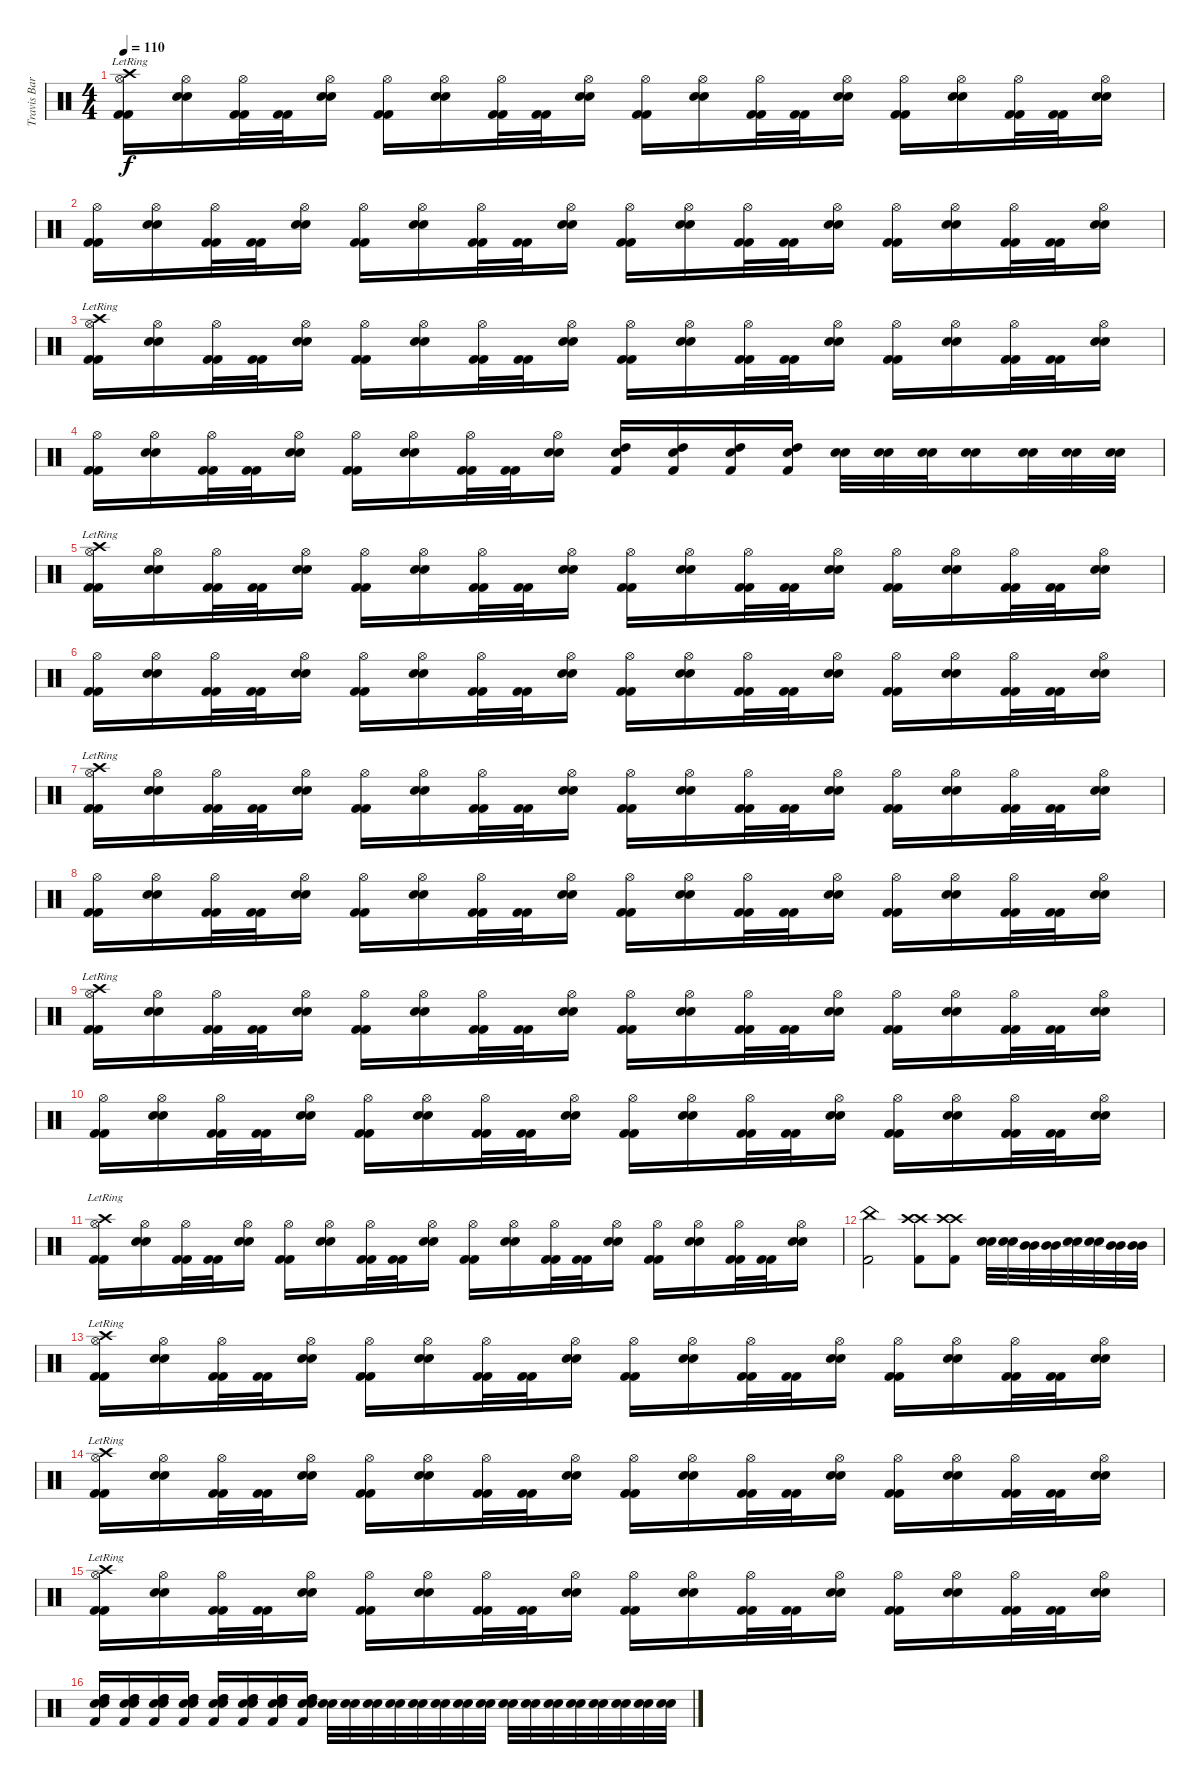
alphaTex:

\track ("Travis Barker - Drums" "Travis Bar") {instrument percussion}
\staff {score}
\articulation defaults
\ts (4 4)
\tempo 110
\clef neutral
\ks c
("Kick (hit) 2" "Kick (hit) 2" "Hi-Hat (open)" "Crash high (hit)"{lr}).16{dy f} ("Snare (hit) 2" "Snare (hit) 2" "Hi-Hat (open)").16 ("Kick (hit) 2" "Kick (hit) 2" "Hi-Hat (open)").32 ("Kick (hit) 2" "Kick (hit) 2").32 ("Snare (hit) 2" "Snare (hit) 2" "Hi-Hat (open)").16 ("Kick (hit) 2" "Kick (hit) 2" "Hi-Hat (open)").16 ("Snare (hit) 2" "Snare (hit) 2" "Hi-Hat (open)").16 ("Kick (hit) 2" "Kick (hit) 2" "Hi-Hat (open)").32 ("Kick (hit) 2" "Kick (hit) 2").32 ("Snare (hit) 2" "Snare (hit) 2" "Hi-Hat (open)").16 ("Kick (hit) 2" "Kick (hit) 2" "Hi-Hat (open)").16 ("Snare (hit) 2" "Snare (hit) 2" "Hi-Hat (open)").16 ("Kick (hit) 2" "Kick (hit) 2" "Hi-Hat (open)").32 ("Kick (hit) 2" "Kick (hit) 2").32 ("Snare (hit) 2" "Snare (hit) 2" "Hi-Hat (open)").16 ("Kick (hit) 2" "Kick (hit) 2" "Hi-Hat (open)").16 ("Snare (hit) 2" "Snare (hit) 2" "Hi-Hat (open)").16 ("Kick (hit) 2" "Kick (hit) 2" "Hi-Hat (open)").32 ("Kick (hit) 2" "Kick (hit) 2").32 ("Snare (hit) 2" "Snare (hit) 2" "Hi-Hat (open)").16 |
("Kick (hit) 2" "Kick (hit) 2" "Hi-Hat (open)").16 ("Snare (hit) 2" "Snare (hit) 2" "Hi-Hat (open)").16 ("Kick (hit) 2" "Kick (hit) 2" "Hi-Hat (open)").32 ("Kick (hit) 2" "Kick (hit) 2").32 ("Snare (hit) 2" "Snare (hit) 2" "Hi-Hat (open)").16 ("Kick (hit) 2" "Kick (hit) 2" "Hi-Hat (open)").16 ("Snare (hit) 2" "Snare (hit) 2" "Hi-Hat (open)").16 ("Kick (hit) 2" "Kick (hit) 2" "Hi-Hat (open)").32 ("Kick (hit) 2" "Kick (hit) 2").32 ("Snare (hit) 2" "Snare (hit) 2" "Hi-Hat (open)").16 ("Kick (hit) 2" "Kick (hit) 2" "Hi-Hat (open)").16 ("Snare (hit) 2" "Snare (hit) 2" "Hi-Hat (open)").16 ("Kick (hit) 2" "Kick (hit) 2" "Hi-Hat (open)").32 ("Kick (hit) 2" "Kick (hit) 2").32 ("Snare (hit) 2" "Snare (hit) 2" "Hi-Hat (open)").16 ("Kick (hit) 2" "Kick (hit) 2" "Hi-Hat (open)").16 ("Snare (hit) 2" "Snare (hit) 2" "Hi-Hat (open)").16 ("Kick (hit) 2" "Kick (hit) 2" "Hi-Hat (open)").32 ("Kick (hit) 2" "Kick (hit) 2").32 ("Snare (hit) 2" "Snare (hit) 2" "Hi-Hat (open)").16 |
("Kick (hit) 2" "Kick (hit) 2" "Hi-Hat (open)" "Crash high (hit)"{lr}).16 ("Snare (hit) 2" "Snare (hit) 2" "Hi-Hat (open)").16 ("Kick (hit) 2" "Kick (hit) 2" "Hi-Hat (open)").32 ("Kick (hit) 2" "Kick (hit) 2").32 ("Snare (hit) 2" "Snare (hit) 2" "Hi-Hat (open)").16 ("Kick (hit) 2" "Kick (hit) 2" "Hi-Hat (open)").16 ("Snare (hit) 2" "Snare (hit) 2" "Hi-Hat (open)").16 ("Kick (hit) 2" "Kick (hit) 2" "Hi-Hat (open)").32 ("Kick (hit) 2" "Kick (hit) 2").32 ("Snare (hit) 2" "Snare (hit) 2" "Hi-Hat (open)").16 ("Kick (hit) 2" "Kick (hit) 2" "Hi-Hat (open)").16 ("Snare (hit) 2" "Snare (hit) 2" "Hi-Hat (open)").16 ("Kick (hit) 2" "Kick (hit) 2" "Hi-Hat (open)").32 ("Kick (hit) 2" "Kick (hit) 2").32 ("Snare (hit) 2" "Snare (hit) 2" "Hi-Hat (open)").16 ("Kick (hit) 2" "Kick (hit) 2" "Hi-Hat (open)").16 ("Snare (hit) 2" "Snare (hit) 2" "Hi-Hat (open)").16 ("Kick (hit) 2" "Kick (hit) 2" "Hi-Hat (open)").32 ("Kick (hit) 2" "Kick (hit) 2").32 ("Snare (hit) 2" "Snare (hit) 2" "Hi-Hat (open)").16 |
("Kick (hit) 2" "Kick (hit) 2" "Hi-Hat (open)").16 ("Snare (hit) 2" "Snare (hit) 2" "Hi-Hat (open)").16 ("Kick (hit) 2" "Kick (hit) 2" "Hi-Hat (open)").32 ("Kick (hit) 2" "Kick (hit) 2").32 ("Snare (hit) 2" "Snare (hit) 2" "Hi-Hat (open)").16 ("Kick (hit) 2" "Kick (hit) 2" "Hi-Hat (open)").16 ("Snare (hit) 2" "Snare (hit) 2" "Hi-Hat (open)").16 ("Kick (hit) 2" "Kick (hit) 2" "Hi-Hat (open)").32 ("Kick (hit) 2" "Kick (hit) 2").32 ("Snare (hit) 2" "Snare (hit) 2" "Hi-Hat (open)").16 ("Snare (hit) 2" "High Tom (hit)" "Kick (hit) 2").16 ("Snare (hit) 2" "High Tom (hit)" "Kick (hit) 2").16 ("Snare (hit) 2" "High Tom (hit)" "Kick (hit) 2").16 ("Snare (hit) 2" "High Tom (hit)" "Kick (hit) 2").16 ("Snare (hit) 2" "Snare (hit) 2").32 ("Snare (hit) 2" "Snare (hit) 2").32 ("Snare (hit) 2" "Snare (hit) 2").32 ("Snare (hit) 2" "Snare (hit) 2").16 ("Snare (hit) 2" "Snare (hit) 2").32 ("Snare (hit) 2" "Snare (hit) 2").32 ("Snare (hit) 2" "Snare (hit) 2").32 |
("Kick (hit) 2" "Kick (hit) 2" "Hi-Hat (open)" "Crash high (hit)"{lr}).16 ("Snare (hit) 2" "Snare (hit) 2" "Hi-Hat (open)").16 ("Kick (hit) 2" "Kick (hit) 2" "Hi-Hat (open)").32 ("Kick (hit) 2" "Kick (hit) 2").32 ("Snare (hit) 2" "Snare (hit) 2" "Hi-Hat (open)").16 ("Kick (hit) 2" "Kick (hit) 2" "Hi-Hat (open)").16 ("Snare (hit) 2" "Snare (hit) 2" "Hi-Hat (open)").16 ("Kick (hit) 2" "Kick (hit) 2" "Hi-Hat (open)").32 ("Kick (hit) 2" "Kick (hit) 2").32 ("Snare (hit) 2" "Snare (hit) 2" "Hi-Hat (open)").16 ("Kick (hit) 2" "Kick (hit) 2" "Hi-Hat (open)").16 ("Snare (hit) 2" "Snare (hit) 2" "Hi-Hat (open)").16 ("Kick (hit) 2" "Kick (hit) 2" "Hi-Hat (open)").32 ("Kick (hit) 2" "Kick (hit) 2").32 ("Snare (hit) 2" "Snare (hit) 2" "Hi-Hat (open)").16 ("Kick (hit) 2" "Kick (hit) 2" "Hi-Hat (open)").16 ("Snare (hit) 2" "Snare (hit) 2" "Hi-Hat (open)").16 ("Kick (hit) 2" "Kick (hit) 2" "Hi-Hat (open)").32 ("Kick (hit) 2" "Kick (hit) 2").32 ("Snare (hit) 2" "Snare (hit) 2" "Hi-Hat (open)").16 |
("Kick (hit) 2" "Kick (hit) 2" "Hi-Hat (open)").16 ("Snare (hit) 2" "Snare (hit) 2" "Hi-Hat (open)").16 ("Kick (hit) 2" "Kick (hit) 2" "Hi-Hat (open)").32 ("Kick (hit) 2" "Kick (hit) 2").32 ("Snare (hit) 2" "Snare (hit) 2" "Hi-Hat (open)").16 ("Kick (hit) 2" "Kick (hit) 2" "Hi-Hat (open)").16 ("Snare (hit) 2" "Snare (hit) 2" "Hi-Hat (open)").16 ("Kick (hit) 2" "Kick (hit) 2" "Hi-Hat (open)").32 ("Kick (hit) 2" "Kick (hit) 2").32 ("Snare (hit) 2" "Snare (hit) 2" "Hi-Hat (open)").16 ("Kick (hit) 2" "Kick (hit) 2" "Hi-Hat (open)").16 ("Snare (hit) 2" "Snare (hit) 2" "Hi-Hat (open)").16 ("Kick (hit) 2" "Kick (hit) 2" "Hi-Hat (open)").32 ("Kick (hit) 2" "Kick (hit) 2").32 ("Snare (hit) 2" "Snare (hit) 2" "Hi-Hat (open)").16 ("Kick (hit) 2" "Kick (hit) 2" "Hi-Hat (open)").16 ("Snare (hit) 2" "Snare (hit) 2" "Hi-Hat (open)").16 ("Kick (hit) 2" "Kick (hit) 2" "Hi-Hat (open)").32 ("Kick (hit) 2" "Kick (hit) 2").32 ("Snare (hit) 2" "Snare (hit) 2" "Hi-Hat (open)").16 |
("Kick (hit) 2" "Kick (hit) 2" "Hi-Hat (open)" "Crash high (hit)"{lr}).16 ("Snare (hit) 2" "Snare (hit) 2" "Hi-Hat (open)").16 ("Kick (hit) 2" "Kick (hit) 2" "Hi-Hat (open)").32 ("Kick (hit) 2" "Kick (hit) 2").32 ("Snare (hit) 2" "Snare (hit) 2" "Hi-Hat (open)").16 ("Kick (hit) 2" "Kick (hit) 2" "Hi-Hat (open)").16 ("Snare (hit) 2" "Snare (hit) 2" "Hi-Hat (open)").16 ("Kick (hit) 2" "Kick (hit) 2" "Hi-Hat (open)").32 ("Kick (hit) 2" "Kick (hit) 2").32 ("Snare (hit) 2" "Snare (hit) 2" "Hi-Hat (open)").16 ("Kick (hit) 2" "Kick (hit) 2" "Hi-Hat (open)").16 ("Snare (hit) 2" "Snare (hit) 2" "Hi-Hat (open)").16 ("Kick (hit) 2" "Kick (hit) 2" "Hi-Hat (open)").32 ("Kick (hit) 2" "Kick (hit) 2").32 ("Snare (hit) 2" "Snare (hit) 2" "Hi-Hat (open)").16 ("Kick (hit) 2" "Kick (hit) 2" "Hi-Hat (open)").16 ("Snare (hit) 2" "Snare (hit) 2" "Hi-Hat (open)").16 ("Kick (hit) 2" "Kick (hit) 2" "Hi-Hat (open)").32 ("Kick (hit) 2" "Kick (hit) 2").32 ("Snare (hit) 2" "Snare (hit) 2" "Hi-Hat (open)").16 |
("Kick (hit) 2" "Kick (hit) 2" "Hi-Hat (open)").16 ("Snare (hit) 2" "Snare (hit) 2" "Hi-Hat (open)").16 ("Kick (hit) 2" "Kick (hit) 2" "Hi-Hat (open)").32 ("Kick (hit) 2" "Kick (hit) 2").32 ("Snare (hit) 2" "Snare (hit) 2" "Hi-Hat (open)").16 ("Kick (hit) 2" "Kick (hit) 2" "Hi-Hat (open)").16 ("Snare (hit) 2" "Snare (hit) 2" "Hi-Hat (open)").16 ("Kick (hit) 2" "Kick (hit) 2" "Hi-Hat (open)").32 ("Kick (hit) 2" "Kick (hit) 2").32 ("Snare (hit) 2" "Snare (hit) 2" "Hi-Hat (open)").16 ("Kick (hit) 2" "Kick (hit) 2" "Hi-Hat (open)").16 ("Snare (hit) 2" "Snare (hit) 2" "Hi-Hat (open)").16 ("Kick (hit) 2" "Kick (hit) 2" "Hi-Hat (open)").32 ("Kick (hit) 2" "Kick (hit) 2").32 ("Snare (hit) 2" "Snare (hit) 2" "Hi-Hat (open)").16 ("Kick (hit) 2" "Kick (hit) 2" "Hi-Hat (open)").16 ("Snare (hit) 2" "Snare (hit) 2" "Hi-Hat (open)").16 ("Kick (hit) 2" "Kick (hit) 2" "Hi-Hat (open)").32 ("Kick (hit) 2" "Kick (hit) 2").32 ("Snare (hit) 2" "Snare (hit) 2" "Hi-Hat (open)").16 |
("Kick (hit) 2" "Kick (hit) 2" "Hi-Hat (open)" "Crash high (hit)"{lr}).16 ("Snare (hit) 2" "Snare (hit) 2" "Hi-Hat (open)").16 ("Kick (hit) 2" "Kick (hit) 2" "Hi-Hat (open)").32 ("Kick (hit) 2" "Kick (hit) 2").32 ("Snare (hit) 2" "Snare (hit) 2" "Hi-Hat (open)").16 ("Kick (hit) 2" "Kick (hit) 2" "Hi-Hat (open)").16 ("Snare (hit) 2" "Snare (hit) 2" "Hi-Hat (open)").16 ("Kick (hit) 2" "Kick (hit) 2" "Hi-Hat (open)").32 ("Kick (hit) 2" "Kick (hit) 2").32 ("Snare (hit) 2" "Snare (hit) 2" "Hi-Hat (open)").16 ("Kick (hit) 2" "Kick (hit) 2" "Hi-Hat (open)").16 ("Snare (hit) 2" "Snare (hit) 2" "Hi-Hat (open)").16 ("Kick (hit) 2" "Kick (hit) 2" "Hi-Hat (open)").32 ("Kick (hit) 2" "Kick (hit) 2").32 ("Snare (hit) 2" "Snare (hit) 2" "Hi-Hat (open)").16 ("Kick (hit) 2" "Kick (hit) 2" "Hi-Hat (open)").16 ("Snare (hit) 2" "Snare (hit) 2" "Hi-Hat (open)").16 ("Kick (hit) 2" "Kick (hit) 2" "Hi-Hat (open)").32 ("Kick (hit) 2" "Kick (hit) 2").32 ("Snare (hit) 2" "Snare (hit) 2" "Hi-Hat (open)").16 |
("Kick (hit) 2" "Kick (hit) 2" "Hi-Hat (open)").16 ("Snare (hit) 2" "Snare (hit) 2" "Hi-Hat (open)").16 ("Kick (hit) 2" "Kick (hit) 2" "Hi-Hat (open)").32 ("Kick (hit) 2" "Kick (hit) 2").32 ("Snare (hit) 2" "Snare (hit) 2" "Hi-Hat (open)").16 ("Kick (hit) 2" "Kick (hit) 2" "Hi-Hat (open)").16 ("Snare (hit) 2" "Snare (hit) 2" "Hi-Hat (open)").16 ("Kick (hit) 2" "Kick (hit) 2" "Hi-Hat (open)").32 ("Kick (hit) 2" "Kick (hit) 2").32 ("Snare (hit) 2" "Snare (hit) 2" "Hi-Hat (open)").16 ("Kick (hit) 2" "Kick (hit) 2" "Hi-Hat (open)").16 ("Snare (hit) 2" "Snare (hit) 2" "Hi-Hat (open)").16 ("Kick (hit) 2" "Kick (hit) 2" "Hi-Hat (open)").32 ("Kick (hit) 2" "Kick (hit) 2").32 ("Snare (hit) 2" "Snare (hit) 2" "Hi-Hat (open)").16 ("Kick (hit) 2" "Kick (hit) 2" "Hi-Hat (open)").16 ("Snare (hit) 2" "Snare (hit) 2" "Hi-Hat (open)").16 ("Kick (hit) 2" "Kick (hit) 2" "Hi-Hat (open)").32 ("Kick (hit) 2" "Kick (hit) 2").32 ("Snare (hit) 2" "Snare (hit) 2" "Hi-Hat (open)").16 |
("Kick (hit) 2" "Kick (hit) 2" "Hi-Hat (open)" "Crash high (hit)"{lr}).16 ("Snare (hit) 2" "Snare (hit) 2" "Hi-Hat (open)").16 ("Kick (hit) 2" "Kick (hit) 2" "Hi-Hat (open)").32 ("Kick (hit) 2" "Kick (hit) 2").32 ("Snare (hit) 2" "Snare (hit) 2" "Hi-Hat (open)").16 ("Kick (hit) 2" "Kick (hit) 2" "Hi-Hat (open)").16 ("Snare (hit) 2" "Snare (hit) 2" "Hi-Hat (open)").16 ("Kick (hit) 2" "Kick (hit) 2" "Hi-Hat (open)").32 ("Kick (hit) 2" "Kick (hit) 2").32 ("Snare (hit) 2" "Snare (hit) 2" "Hi-Hat (open)").16 ("Kick (hit) 2" "Kick (hit) 2" "Hi-Hat (open)").16 ("Snare (hit) 2" "Snare (hit) 2" "Hi-Hat (open)").16 ("Kick (hit) 2" "Kick (hit) 2" "Hi-Hat (open)").32 ("Kick (hit) 2" "Kick (hit) 2").32 ("Snare (hit) 2" "Snare (hit) 2" "Hi-Hat (open)").16 ("Kick (hit) 2" "Kick (hit) 2" "Hi-Hat (open)").16 ("Snare (hit) 2" "Snare (hit) 2" "Hi-Hat (open)").16 ("Kick (hit) 2" "Kick (hit) 2" "Hi-Hat (open)").32 ("Kick (hit) 2" "Kick (hit) 2").32 ("Snare (hit) 2" "Snare (hit) 2" "Hi-Hat (open)").16 |
("China (hit)" "Kick (hit) 2").2 ("Crash high (hit)" "Crash high (hit)" "Kick (hit) 2").8 ("Crash high (hit)" "Crash high (hit)" "Kick (hit) 2").8 ("Snare (hit) 2" "Snare (hit) 2").32 ("Snare (hit) 2" "Snare (hit) 2").32 ("Mid Tom (hit)" "Mid Tom (hit)").32 ("Mid Tom (hit)" "Mid Tom (hit)").32 ("Snare (hit) 2" "Snare (hit) 2").32 ("Snare (hit) 2" "Snare (hit) 2").32 ("Mid Tom (hit)" "Mid Tom (hit)").32 ("Mid Tom (hit)" "Mid Tom (hit)").32 |
("Kick (hit) 2" "Kick (hit) 2" "Hi-Hat (open)" "Crash high (hit)"{lr}).16 ("Snare (hit) 2" "Snare (hit) 2" "Hi-Hat (open)").16 ("Kick (hit) 2" "Kick (hit) 2" "Hi-Hat (open)").32 ("Kick (hit) 2" "Kick (hit) 2").32 ("Snare (hit) 2" "Snare (hit) 2" "Hi-Hat (open)").16 ("Kick (hit) 2" "Kick (hit) 2" "Hi-Hat (open)").16 ("Snare (hit) 2" "Snare (hit) 2" "Hi-Hat (open)").16 ("Kick (hit) 2" "Kick (hit) 2" "Hi-Hat (open)").32 ("Kick (hit) 2" "Kick (hit) 2").32 ("Snare (hit) 2" "Snare (hit) 2" "Hi-Hat (open)").16 ("Kick (hit) 2" "Kick (hit) 2" "Hi-Hat (open)").16 ("Snare (hit) 2" "Snare (hit) 2" "Hi-Hat (open)").16 ("Kick (hit) 2" "Kick (hit) 2" "Hi-Hat (open)").32 ("Kick (hit) 2" "Kick (hit) 2").32 ("Snare (hit) 2" "Snare (hit) 2" "Hi-Hat (open)").16 ("Kick (hit) 2" "Kick (hit) 2" "Hi-Hat (open)").16 ("Snare (hit) 2" "Snare (hit) 2" "Hi-Hat (open)").16 ("Kick (hit) 2" "Kick (hit) 2" "Hi-Hat (open)").32 ("Kick (hit) 2" "Kick (hit) 2").32 ("Snare (hit) 2" "Snare (hit) 2" "Hi-Hat (open)").16 |
("Kick (hit) 2" "Kick (hit) 2" "Hi-Hat (open)" "Crash high (hit)"{lr}).16 ("Snare (hit) 2" "Snare (hit) 2" "Hi-Hat (open)").16 ("Kick (hit) 2" "Kick (hit) 2" "Hi-Hat (open)").32 ("Kick (hit) 2" "Kick (hit) 2").32 ("Snare (hit) 2" "Snare (hit) 2" "Hi-Hat (open)").16 ("Kick (hit) 2" "Kick (hit) 2" "Hi-Hat (open)").16 ("Snare (hit) 2" "Snare (hit) 2" "Hi-Hat (open)").16 ("Kick (hit) 2" "Kick (hit) 2" "Hi-Hat (open)").32 ("Kick (hit) 2" "Kick (hit) 2").32 ("Snare (hit) 2" "Snare (hit) 2" "Hi-Hat (open)").16 ("Kick (hit) 2" "Kick (hit) 2" "Hi-Hat (open)").16 ("Snare (hit) 2" "Snare (hit) 2" "Hi-Hat (open)").16 ("Kick (hit) 2" "Kick (hit) 2" "Hi-Hat (open)").32 ("Kick (hit) 2" "Kick (hit) 2").32 ("Snare (hit) 2" "Snare (hit) 2" "Hi-Hat (open)").16 ("Kick (hit) 2" "Kick (hit) 2" "Hi-Hat (open)").16 ("Snare (hit) 2" "Snare (hit) 2" "Hi-Hat (open)").16 ("Kick (hit) 2" "Kick (hit) 2" "Hi-Hat (open)").32 ("Kick (hit) 2" "Kick (hit) 2").32 ("Snare (hit) 2" "Snare (hit) 2" "Hi-Hat (open)").16 |
("Kick (hit) 2" "Kick (hit) 2" "Hi-Hat (open)" "Crash high (hit)"{lr}).16 ("Snare (hit) 2" "Snare (hit) 2" "Hi-Hat (open)").16 ("Kick (hit) 2" "Kick (hit) 2" "Hi-Hat (open)").32 ("Kick (hit) 2" "Kick (hit) 2").32 ("Snare (hit) 2" "Snare (hit) 2" "Hi-Hat (open)").16 ("Kick (hit) 2" "Kick (hit) 2" "Hi-Hat (open)").16 ("Snare (hit) 2" "Snare (hit) 2" "Hi-Hat (open)").16 ("Kick (hit) 2" "Kick (hit) 2" "Hi-Hat (open)").32 ("Kick (hit) 2" "Kick (hit) 2").32 ("Snare (hit) 2" "Snare (hit) 2" "Hi-Hat (open)").16 ("Kick (hit) 2" "Kick (hit) 2" "Hi-Hat (open)").16 ("Snare (hit) 2" "Snare (hit) 2" "Hi-Hat (open)").16 ("Kick (hit) 2" "Kick (hit) 2" "Hi-Hat (open)").32 ("Kick (hit) 2" "Kick (hit) 2").32 ("Snare (hit) 2" "Snare (hit) 2" "Hi-Hat (open)").16 ("Kick (hit) 2" "Kick (hit) 2" "Hi-Hat (open)").16 ("Snare (hit) 2" "Snare (hit) 2" "Hi-Hat (open)").16 ("Kick (hit) 2" "Kick (hit) 2" "Hi-Hat (open)").32 ("Kick (hit) 2" "Kick (hit) 2").32 ("Snare (hit) 2" "Snare (hit) 2" "Hi-Hat (open)").16 |
("Snare (hit) 2" "Snare (hit) 2" "High Tom (hit)" "High Tom (hit)" "Kick (hit) 2").16 ("Snare (hit) 2" "Snare (hit) 2" "High Tom (hit)" "High Tom (hit)" "Kick (hit) 2").16 ("Snare (hit) 2" "Snare (hit) 2" "High Tom (hit)" "High Tom (hit)" "Kick (hit) 2").16 ("Snare (hit) 2" "Snare (hit) 2" "High Tom (hit)" "High Tom (hit)" "Kick (hit) 2").16 ("Snare (hit) 2" "Snare (hit) 2" "High Tom (hit)" "High Tom (hit)" "Kick (hit) 2").16 ("Snare (hit) 2" "Snare (hit) 2" "High Tom (hit)" "High Tom (hit)" "Kick (hit) 2").16 ("Snare (hit) 2" "Snare (hit) 2" "High Tom (hit)" "High Tom (hit)" "Kick (hit) 2").16 ("Snare (hit) 2" "Snare (hit) 2" "High Tom (hit)" "High Tom (hit)" "Kick (hit) 2").16 ("Snare (hit) 2" "Snare (hit) 2").32 ("Snare (hit) 2" "Snare (hit) 2").32 ("Snare (hit) 2" "Snare (hit) 2").32 ("Snare (hit) 2" "Snare (hit) 2").32 ("Snare (hit) 2" "Snare (hit) 2").32 ("Snare (hit) 2" "Snare (hit) 2").32 ("Snare (hit) 2" "Snare (hit) 2").32 ("Snare (hit) 2" "Snare (hit) 2").32 ("Snare (hit) 2" "Snare (hit) 2").32 ("Snare (hit) 2" "Snare (hit) 2").32 ("Snare (hit) 2" "Snare (hit) 2").32 ("Snare (hit) 2" "Snare (hit) 2").32 ("Snare (hit) 2" "Snare (hit) 2").32 ("Snare (hit) 2" "Snare (hit) 2").32 ("Snare (hit) 2" "Snare (hit) 2").32 ("Snare (hit) 2" "Snare (hit) 2").32
